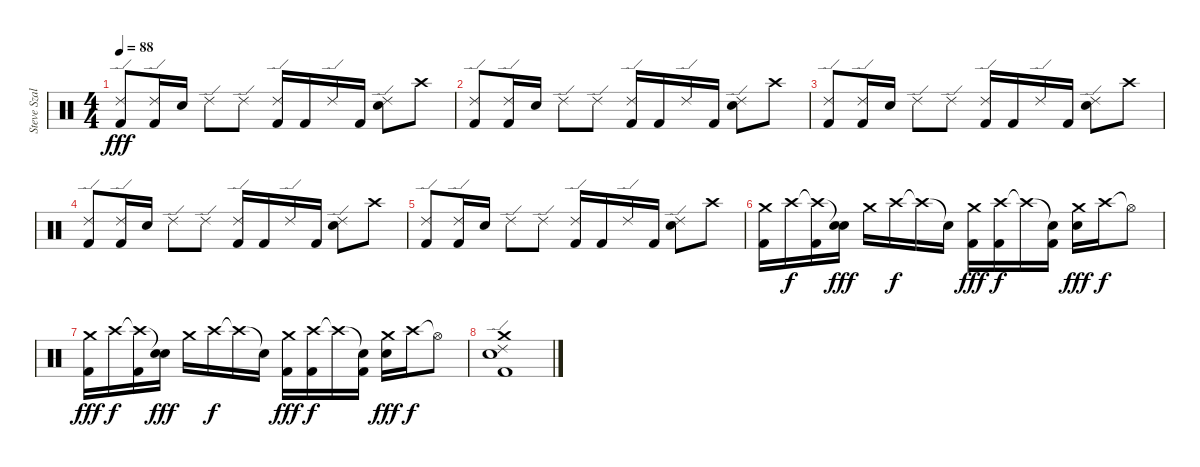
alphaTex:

\track ("Steve Szalay " "Steve Szal") {instrument percussion}
\staff {score}
\articulation defaults
\ts (4 4)
\tempo 88
\clef neutral
\ks c
("Ride (edge) 2" "Kick (hit) 2").8{dy fff} ("Ride (edge) 2" "Kick (hit) 2").16 "Electric Snare (hit)".16 "Ride (edge) 2".8 "Ride (edge) 2".8 ("Ride (edge) 2" "Kick (hit) 2").16 "Kick (hit) 2".16 "Ride (edge) 2".16 "Kick (hit) 2".16 ("Ride (edge) 2" "Electric Snare (hit)").8 "Crash high (hit)".8 |
("Ride (edge) 2" "Kick (hit) 2").8 ("Ride (edge) 2" "Kick (hit) 2").16 "Electric Snare (hit)".16 "Ride (edge) 2".8 "Ride (edge) 2".8 ("Ride (edge) 2" "Kick (hit) 2").16 "Kick (hit) 2".16 "Ride (edge) 2".16 "Kick (hit) 2".16 ("Ride (edge) 2" "Electric Snare (hit)").8 "Crash high (hit)".8 |
("Ride (edge) 2" "Kick (hit) 2").8 ("Ride (edge) 2" "Kick (hit) 2").16 "Electric Snare (hit)".16 "Ride (edge) 2".8 "Ride (edge) 2".8 ("Ride (edge) 2" "Kick (hit) 2").16 "Kick (hit) 2".16 "Ride (edge) 2".16 "Kick (hit) 2".16 ("Ride (edge) 2" "Electric Snare (hit)").8 "Crash high (hit)".8 |
("Ride (edge) 2" "Kick (hit) 2").8 ("Ride (edge) 2" "Kick (hit) 2").16 "Electric Snare (hit)".16 "Ride (edge) 2".8 "Ride (edge) 2".8 ("Ride (edge) 2" "Kick (hit) 2").16 "Kick (hit) 2".16 "Ride (edge) 2".16 "Kick (hit) 2".16 ("Ride (edge) 2" "Electric Snare (hit)").8 "Crash high (hit)".8 |
("Ride (edge) 2" "Kick (hit) 2").8 ("Ride (edge) 2" "Kick (hit) 2").16 "Electric Snare (hit)".16 "Ride (edge) 2".8 "Ride (edge) 2".8 ("Ride (edge) 2" "Kick (hit) 2").16 "Kick (hit) 2".16 "Ride (edge) 2".16 "Kick (hit) 2".16 ("Ride (edge) 2" "Electric Snare (hit)").8 "Crash high (hit)".8 |
("Crash medium (hit)" "Kick (hit) 2").16 "Crash high (hit)".16{dy f} ("Crash high (hit)"{t} "Kick (hit) 2").16 ("Snare (hit)"{t} "Electric Snare (hit)").16{dy fff} "Crash medium (hit)".16 "Crash high (hit)".16{dy f} "Crash high (hit)"{t}.16 "Snare (hit)"{t}.16 ("Crash medium (hit)" "Kick (hit) 2").16{dy fff} ("Crash high (hit)" "Kick (hit) 2").16{dy f} "Crash high (hit)"{t}.16 ("Snare (hit)"{t} "Kick (hit) 2").16 ("Crash medium (hit)" "Electric Snare (hit)").16{dy fff} "Crash high (hit)".16{dy f} "Hi-Hat (open)"{t}.8 |
("Crash medium (hit)" "Kick (hit) 2").16{dy fff} "Crash high (hit)".16{dy f} ("Crash high (hit)"{t} "Kick (hit) 2").16 ("Snare (hit)"{t} "Electric Snare (hit)").16{dy fff} "Crash medium (hit)".16 "Crash high (hit)".16{dy f} "Crash high (hit)"{t}.16 "Snare (hit)"{t}.16 ("Crash medium (hit)" "Kick (hit) 2").16{dy fff} ("Crash high (hit)" "Kick (hit) 2").16{dy f} "Crash high (hit)"{t}.16 ("Snare (hit)"{t} "Kick (hit) 2").16 ("Crash medium (hit)" "Electric Snare (hit)").16{dy fff} "Crash high (hit)".16{dy f} "Hi-Hat (open)"{t}.8 |
("Ride (edge) 2" "Crash medium (hit)" "Electric Snare (hit)" "Kick (hit) 2").1
